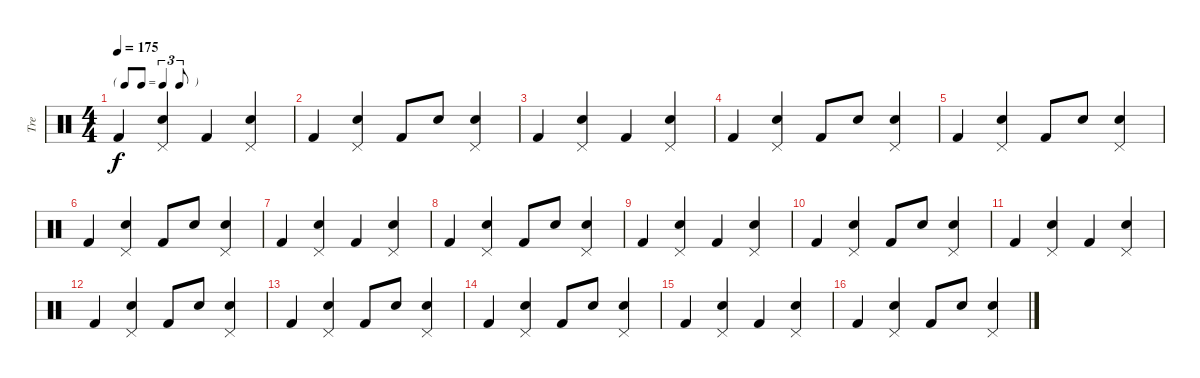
\track ("Tre" "Tre") {instrument percussion}
\staff {score}
\articulation defaults
\ts (4 4)
\tf triplet8th
\tempo 175
\clef neutral
\ks c "Kick (hit) 2".4{dy f}
("Snare (hit) 2" "Pedal Hi-Hat (hit)").4 "Kick (hit) 2".4 ("Snare (hit) 2" "Pedal Hi-Hat (hit)").4 |
"Kick (hit) 2".4 ("Snare (hit) 2" "Pedal Hi-Hat (hit)").4 "Kick (hit) 2".8 "Snare (hit) 2".8 ("Snare (hit) 2" "Pedal Hi-Hat (hit)").4 |
"Kick (hit) 2".4 ("Snare (hit) 2" "Pedal Hi-Hat (hit)").4 "Kick (hit) 2".4 ("Snare (hit) 2" "Pedal Hi-Hat (hit)").4 |
"Kick (hit) 2".4 ("Snare (hit) 2" "Pedal Hi-Hat (hit)").4 "Kick (hit) 2".8 "Snare (hit) 2".8 ("Snare (hit) 2" "Pedal Hi-Hat (hit)").4 |
"Kick (hit) 2".4 ("Snare (hit) 2" "Pedal Hi-Hat (hit)").4 "Kick (hit) 2".8 "Snare (hit) 2".8 ("Snare (hit) 2" "Pedal Hi-Hat (hit)").4 |
"Kick (hit) 2".4 ("Snare (hit) 2" "Pedal Hi-Hat (hit)").4 "Kick (hit) 2".8 "Snare (hit) 2".8 ("Snare (hit) 2" "Pedal Hi-Hat (hit)").4 |
"Kick (hit) 2".4 ("Snare (hit) 2" "Pedal Hi-Hat (hit)").4 "Kick (hit) 2".4 ("Snare (hit) 2" "Pedal Hi-Hat (hit)").4 |
"Kick (hit) 2".4 ("Snare (hit) 2" "Pedal Hi-Hat (hit)").4 "Kick (hit) 2".8 "Snare (hit) 2".8 ("Snare (hit) 2" "Pedal Hi-Hat (hit)").4 |
"Kick (hit) 2".4 ("Snare (hit) 2" "Pedal Hi-Hat (hit)").4 "Kick (hit) 2".4 ("Snare (hit) 2" "Pedal Hi-Hat (hit)").4 |
"Kick (hit) 2".4 ("Snare (hit) 2" "Pedal Hi-Hat (hit)").4 "Kick (hit) 2".8 "Snare (hit) 2".8 ("Snare (hit) 2" "Pedal Hi-Hat (hit)").4 |
"Kick (hit) 2".4 ("Snare (hit) 2" "Pedal Hi-Hat (hit)").4 "Kick (hit) 2".4 ("Snare (hit) 2" "Pedal Hi-Hat (hit)").4 |
"Kick (hit) 2".4 ("Snare (hit) 2" "Pedal Hi-Hat (hit)").4 "Kick (hit) 2".8 "Snare (hit) 2".8 ("Snare (hit) 2" "Pedal Hi-Hat (hit)").4 |
"Kick (hit) 2".4 ("Snare (hit) 2" "Pedal Hi-Hat (hit)").4 "Kick (hit) 2".8 "Snare (hit) 2".8 ("Snare (hit) 2" "Pedal Hi-Hat (hit)").4 |
"Kick (hit) 2".4 ("Snare (hit) 2" "Pedal Hi-Hat (hit)").4 "Kick (hit) 2".8 "Snare (hit) 2".8 ("Snare (hit) 2" "Pedal Hi-Hat (hit)").4 |
"Kick (hit) 2".4 ("Snare (hit) 2" "Pedal Hi-Hat (hit)").4 "Kick (hit) 2".4 ("Snare (hit) 2" "Pedal Hi-Hat (hit)").4 |
"Kick (hit) 2".4 ("Snare (hit) 2" "Pedal Hi-Hat (hit)").4 "Kick (hit) 2".8 "Snare (hit) 2".8 ("Snare (hit) 2" "Pedal Hi-Hat (hit)").4
